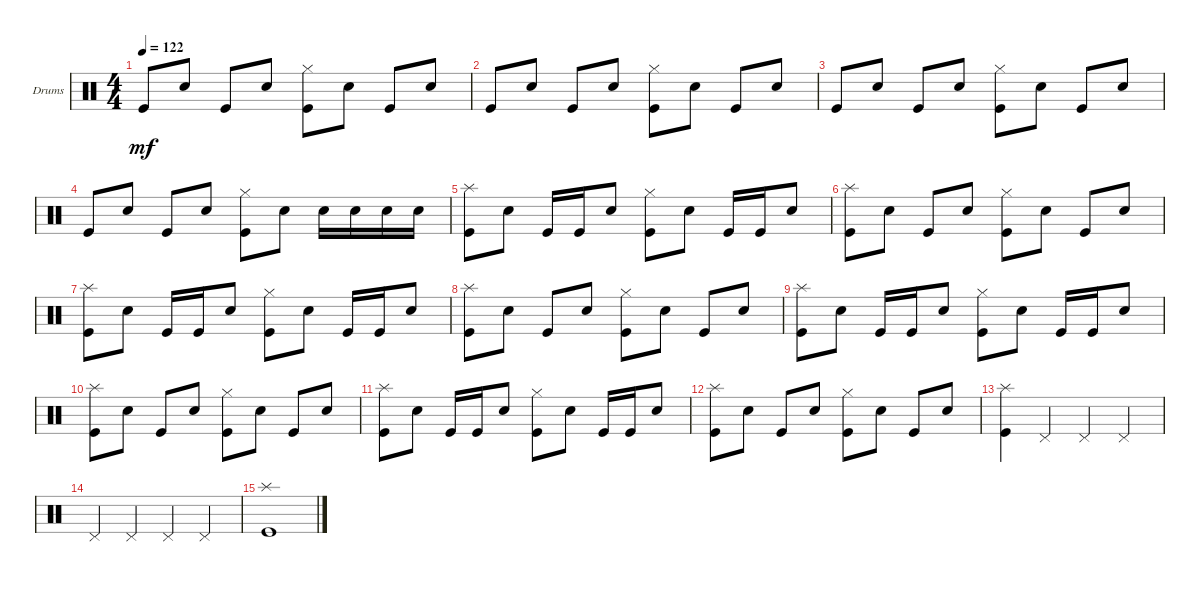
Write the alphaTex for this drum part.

\defaultSystemsLayout 4
\bracketExtendMode groupsimilarinstruments
\firstSystemTrackNameOrientation horizontal
\otherSystemsTrackNameOrientation horizontal
\track ("Drumkit" "Drums") {instrument percussion}
\staff {score}
\articulation defaults
\ts (4 4)
\tempo 122
\clef neutral
\ks c "Kick (hit)".8{dy mf} "Snare (hit) 2".8 "Kick (hit)".8 "Snare (hit) 2".8
("Kick (hit)" "Hi-Hat (closed)").8 "Snare (hit) 2".8 "Kick (hit)".8 "Snare (hit) 2".8 |
"Kick (hit)".8 "Snare (hit) 2".8 "Kick (hit)".8 "Snare (hit) 2".8 ("Kick (hit)" "Hi-Hat (closed)").8 "Snare (hit) 2".8 "Kick (hit)".8 "Snare (hit) 2".8 |
"Kick (hit)".8 "Snare (hit) 2".8 "Kick (hit)".8 "Snare (hit) 2".8 ("Kick (hit)" "Hi-Hat (closed)").8 "Snare (hit) 2".8 "Kick (hit)".8 "Snare (hit) 2".8 |
"Kick (hit)".8 "Snare (hit) 2".8 "Kick (hit)".8 "Snare (hit) 2".8 ("Kick (hit)" "Hi-Hat (closed)").8 "Snare (hit) 2".8 "Snare (hit) 2".16 "Snare (hit) 2".16 "Snare (hit) 2".16 "Snare (hit) 2".16 |
("Kick (hit)" "Splash (hit)").8 "Snare (hit) 2".8 "Kick (hit)".16 "Kick (hit)".16 "Snare (hit) 2".8 ("Kick (hit)" "Hi-Hat (closed)").8 "Snare (hit) 2".8 "Kick (hit)".16 "Kick (hit)".16 "Snare (hit) 2".8 |
("Kick (hit)" "Splash (hit)").8 "Snare (hit) 2".8 "Kick (hit)".8 "Snare (hit) 2".8 ("Kick (hit)" "Hi-Hat (closed)").8 "Snare (hit) 2".8 "Kick (hit)".8 "Snare (hit) 2".8 |
("Kick (hit)" "Splash (hit)").8 "Snare (hit) 2".8 "Kick (hit)".16 "Kick (hit)".16 "Snare (hit) 2".8 ("Kick (hit)" "Hi-Hat (closed)").8 "Snare (hit) 2".8 "Kick (hit)".16 "Kick (hit)".16 "Snare (hit) 2".8 |
("Kick (hit)" "Splash (hit)").8 "Snare (hit) 2".8 "Kick (hit)".8 "Snare (hit) 2".8 ("Kick (hit)" "Hi-Hat (closed)").8 "Snare (hit) 2".8 "Kick (hit)".8 "Snare (hit) 2".8 |
("Kick (hit)" "Splash (hit)").8 "Snare (hit) 2".8 "Kick (hit)".16 "Kick (hit)".16 "Snare (hit) 2".8 ("Kick (hit)" "Hi-Hat (closed)").8 "Snare (hit) 2".8 "Kick (hit)".16 "Kick (hit)".16 "Snare (hit) 2".8 |
("Kick (hit)" "Splash (hit)").8 "Snare (hit) 2".8 "Kick (hit)".8 "Snare (hit) 2".8 ("Kick (hit)" "Hi-Hat (closed)").8 "Snare (hit) 2".8 "Kick (hit)".8 "Snare (hit) 2".8 |
("Kick (hit)" "Splash (hit)").8 "Snare (hit) 2".8 "Kick (hit)".16 "Kick (hit)".16 "Snare (hit) 2".8 ("Kick (hit)" "Hi-Hat (closed)").8 "Snare (hit) 2".8 "Kick (hit)".16 "Kick (hit)".16 "Snare (hit) 2".8 |
("Kick (hit)" "Splash (hit)").8 "Snare (hit) 2".8 "Kick (hit)".8 "Snare (hit) 2".8 ("Kick (hit)" "Hi-Hat (closed)").8 "Snare (hit) 2".8 "Kick (hit)".8 "Snare (hit) 2".8 |
("Splash (hit)" "Kick (hit)").4 "Pedal Hi-Hat (hit)".4 "Pedal Hi-Hat (hit)".4 "Pedal Hi-Hat (hit)".4 |
"Pedal Hi-Hat (hit)".4 "Pedal Hi-Hat (hit)".4 "Pedal Hi-Hat (hit)".4 "Pedal Hi-Hat (hit)".4 |
("Splash (hit)" "Kick (hit)").1
